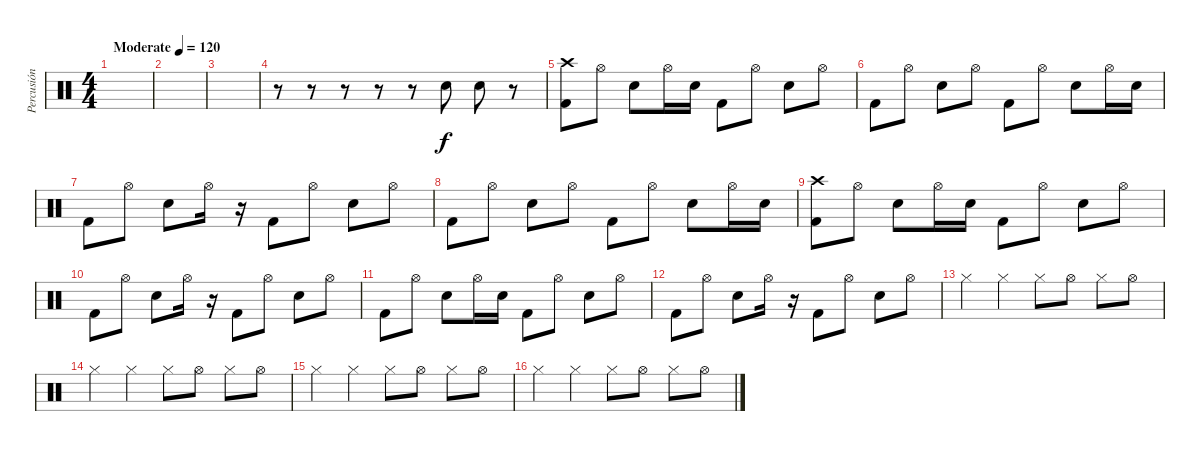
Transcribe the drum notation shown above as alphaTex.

\track ("Percusión" "Percusión") {instrument percussion}
\staff {score}
\articulation defaults
\ts (4 4)
\tempo (120 "Moderate")
\tempo 160
\tempo (120 "Moderate")
\clef neutral
\ks c
|
|
|
r.8 r.8 r.8 r.8 r.8 "Hand Clap (hit)".8 "Hand Clap (hit)".8 r.8 |
("Crash high (hit)" "Kick (hit) 2").8 "Hi-Hat (open)".8 "Snare (hit) 2".8 "Hi-Hat (open)".16 "Snare (hit) 2".16 "Kick (hit) 2".8 "Hi-Hat (open)".8 "Snare (hit) 2".8 "Hi-Hat (open)".8 |
"Kick (hit) 2".8 "Hi-Hat (open)".8 "Snare (hit) 2".8 "Hi-Hat (open)".8 "Kick (hit) 2".8 "Hi-Hat (open)".8 "Snare (hit) 2".8 "Hi-Hat (open)".16 "Snare (hit) 2".16 |
"Kick (hit) 2".8 "Hi-Hat (open)".8 "Snare (hit) 2".8 "Hi-Hat (open)".16 r.16 "Kick (hit) 2".8 "Hi-Hat (open)".8 "Snare (hit) 2".8 "Hi-Hat (open)".8 |
"Kick (hit) 2".8 "Hi-Hat (open)".8 "Snare (hit) 2".8 "Hi-Hat (open)".8 "Kick (hit) 2".8 "Hi-Hat (open)".8 "Snare (hit) 2".8 "Hi-Hat (open)".16 "Snare (hit) 2".16 |
("Crash high (hit)" "Kick (hit) 2").8 "Hi-Hat (open)".8 "Snare (hit) 2".8 "Hi-Hat (open)".16 "Snare (hit) 2".16 "Kick (hit) 2".8 "Hi-Hat (open)".8 "Snare (hit) 2".8 "Hi-Hat (open)".8 |
"Kick (hit) 2".8 "Hi-Hat (open)".8 "Snare (hit) 2".8 "Hi-Hat (open)".16 r.16 "Kick (hit) 2".8 "Hi-Hat (open)".8 "Snare (hit) 2".8 "Hi-Hat (open)".8 |
"Kick (hit) 2".8 "Hi-Hat (open)".8 "Snare (hit) 2".8 "Hi-Hat (open)".16 "Snare (hit) 2".16 "Kick (hit) 2".8 "Hi-Hat (open)".8 "Snare (hit) 2".8 "Hi-Hat (open)".8 |
"Kick (hit) 2".8 "Hi-Hat (open)".8 "Snare (hit) 2".8 "Hi-Hat (open)".16 r.16 "Kick (hit) 2".8 "Hi-Hat (open)".8 "Snare (hit) 2".8 "Hi-Hat (open)".8 |
"Hi-Hat (closed)".4 "Hi-Hat (closed)".4 "Hi-Hat (closed)".8 "Hi-Hat (open)".8 "Hi-Hat (closed)".8 "Hi-Hat (open)".8 |
"Hi-Hat (closed)".4 "Hi-Hat (closed)".4 "Hi-Hat (closed)".8 "Hi-Hat (open)".8 "Hi-Hat (closed)".8 "Hi-Hat (open)".8 |
"Hi-Hat (closed)".4 "Hi-Hat (closed)".4 "Hi-Hat (closed)".8 "Hi-Hat (open)".8 "Hi-Hat (closed)".8 "Hi-Hat (open)".8 |
"Hi-Hat (closed)".4 "Hi-Hat (closed)".4 "Hi-Hat (closed)".8 "Hi-Hat (open)".8 "Hi-Hat (closed)".8 "Hi-Hat (open)".8
